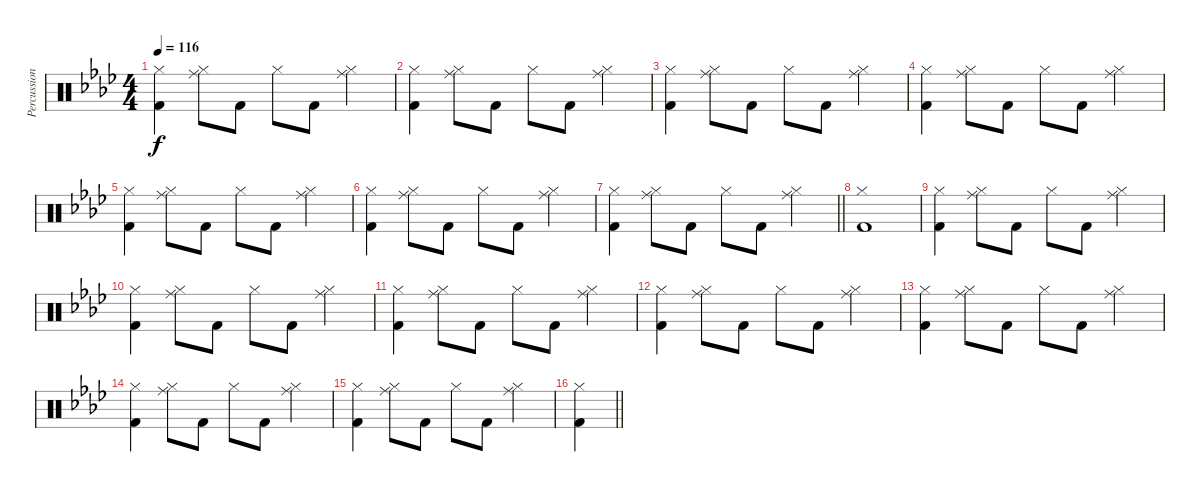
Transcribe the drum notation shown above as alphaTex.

\track ("Percussions" "Percussion") {instrument percussion}
\staff {score}
\articulation defaults
\ts (4 4)
\tempo 116
\clef neutral
\ks ab
("Kick (hit) 2" "Hi-Hat (closed)").4{dy f} ("Ride (middle)" "Hi-Hat (closed)").8 "Kick (hit) 2".8 "Hi-Hat (closed)".8 "Kick (hit) 2".8 ("Ride (middle)" "Hi-Hat (closed)").4 |
("Kick (hit) 2" "Hi-Hat (closed)").4 ("Ride (middle)" "Hi-Hat (closed)").8 "Kick (hit) 2".8 "Hi-Hat (closed)".8 "Kick (hit) 2".8 ("Ride (middle)" "Hi-Hat (closed)").4 |
("Kick (hit) 2" "Hi-Hat (closed)").4 ("Ride (middle)" "Hi-Hat (closed)").8 "Kick (hit) 2".8 "Hi-Hat (closed)".8 "Kick (hit) 2".8 ("Ride (middle)" "Hi-Hat (closed)").4 |
("Kick (hit) 2" "Hi-Hat (closed)").4 ("Ride (middle)" "Hi-Hat (closed)").8 "Kick (hit) 2".8 "Hi-Hat (closed)".8 "Kick (hit) 2".8 ("Ride (middle)" "Hi-Hat (closed)").4 |
("Kick (hit) 2" "Hi-Hat (closed)").4 ("Ride (middle)" "Hi-Hat (closed)").8 "Kick (hit) 2".8 "Hi-Hat (closed)".8 "Kick (hit) 2".8 ("Ride (middle)" "Hi-Hat (closed)").4 |
("Kick (hit) 2" "Hi-Hat (closed)").4 ("Ride (middle)" "Hi-Hat (closed)").8 "Kick (hit) 2".8 "Hi-Hat (closed)".8 "Kick (hit) 2".8 ("Ride (middle)" "Hi-Hat (closed)").4 |
\barLineRight lightlight
("Kick (hit) 2" "Hi-Hat (closed)").4 ("Ride (middle)" "Hi-Hat (closed)").8 "Kick (hit) 2".8 "Hi-Hat (closed)".8 "Kick (hit) 2".8 ("Ride (middle)" "Hi-Hat (closed)").4 |
("Kick (hit) 2" "Hi-Hat (closed)").1 |
("Kick (hit) 2" "Hi-Hat (closed)").4 ("Ride (middle)" "Hi-Hat (closed)").8 "Kick (hit) 2".8 "Hi-Hat (closed)".8 "Kick (hit) 2".8 ("Ride (middle)" "Hi-Hat (closed)").4 |
("Kick (hit) 2" "Hi-Hat (closed)").4 ("Ride (middle)" "Hi-Hat (closed)").8 "Kick (hit) 2".8 "Hi-Hat (closed)".8 "Kick (hit) 2".8 ("Ride (middle)" "Hi-Hat (closed)").4 |
("Kick (hit) 2" "Hi-Hat (closed)").4 ("Ride (middle)" "Hi-Hat (closed)").8 "Kick (hit) 2".8 "Hi-Hat (closed)".8 "Kick (hit) 2".8 ("Ride (middle)" "Hi-Hat (closed)").4 |
("Kick (hit) 2" "Hi-Hat (closed)").4 ("Ride (middle)" "Hi-Hat (closed)").8 "Kick (hit) 2".8 "Hi-Hat (closed)".8 "Kick (hit) 2".8 ("Ride (middle)" "Hi-Hat (closed)").4 |
("Kick (hit) 2" "Hi-Hat (closed)").4 ("Ride (middle)" "Hi-Hat (closed)").8 "Kick (hit) 2".8 "Hi-Hat (closed)".8 "Kick (hit) 2".8 ("Ride (middle)" "Hi-Hat (closed)").4 |
("Kick (hit) 2" "Hi-Hat (closed)").4 ("Ride (middle)" "Hi-Hat (closed)").8 "Kick (hit) 2".8 "Hi-Hat (closed)".8 "Kick (hit) 2".8 ("Ride (middle)" "Hi-Hat (closed)").4 |
("Kick (hit) 2" "Hi-Hat (closed)").4 ("Ride (middle)" "Hi-Hat (closed)").8 "Kick (hit) 2".8 "Hi-Hat (closed)".8 "Kick (hit) 2".8 ("Ride (middle)" "Hi-Hat (closed)").4 |
\barLineRight lightlight
("Kick (hit) 2" "Hi-Hat (closed)").4
